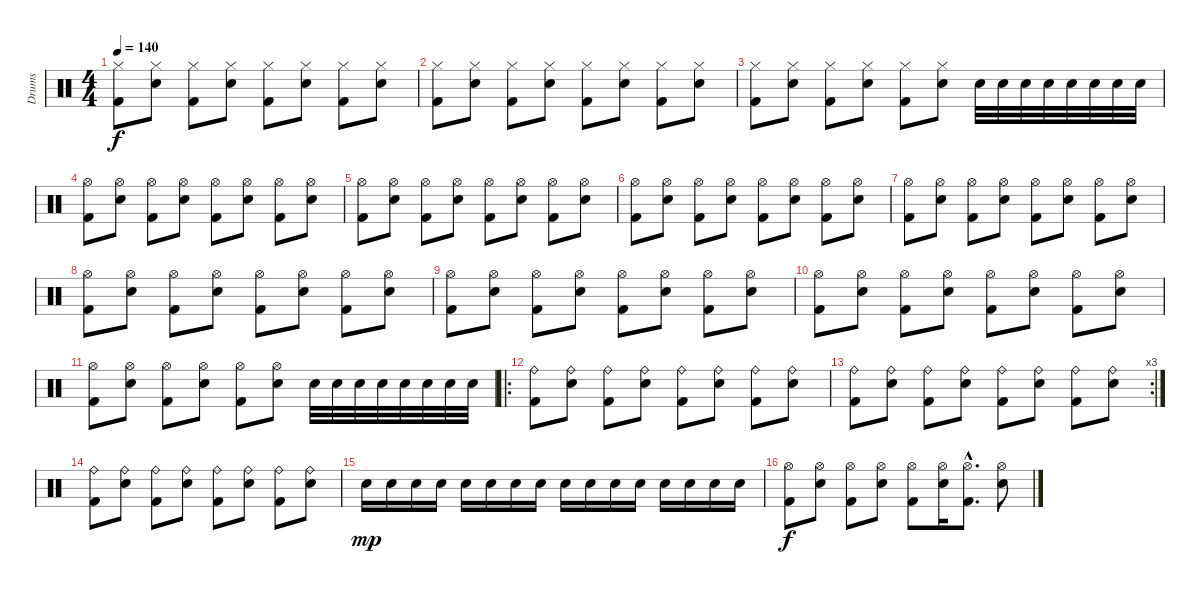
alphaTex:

\track ("Drums" "Drums") {instrument percussion}
\staff {score}
\articulation defaults
\ts (4 4)
\tempo 140
\clef neutral
\ks c
("Hi-Hat (closed)" "Kick (hit) 2").8{dy f} ("Hi-Hat (closed)" "Electric Snare (hit)").8 ("Hi-Hat (closed)" "Kick (hit) 2").8 ("Hi-Hat (closed)" "Electric Snare (hit)").8 ("Hi-Hat (closed)" "Kick (hit) 2").8 ("Hi-Hat (closed)" "Electric Snare (hit)").8 ("Hi-Hat (closed)" "Kick (hit) 2").8 ("Hi-Hat (closed)" "Electric Snare (hit)").8 |
("Hi-Hat (closed)" "Kick (hit) 2").8 ("Hi-Hat (closed)" "Electric Snare (hit)").8 ("Hi-Hat (closed)" "Kick (hit) 2").8 ("Hi-Hat (closed)" "Electric Snare (hit)").8 ("Hi-Hat (closed)" "Kick (hit) 2").8 ("Hi-Hat (closed)" "Electric Snare (hit)").8 ("Hi-Hat (closed)" "Kick (hit) 2").8 ("Hi-Hat (closed)" "Electric Snare (hit)").8 |
("Hi-Hat (closed)" "Kick (hit) 2").8 ("Hi-Hat (closed)" "Electric Snare (hit)").8 ("Hi-Hat (closed)" "Kick (hit) 2").8 ("Hi-Hat (closed)" "Electric Snare (hit)").8 ("Hi-Hat (closed)" "Kick (hit) 2").8 ("Hi-Hat (closed)" "Electric Snare (hit)").8 "Electric Snare (hit)".32 "Electric Snare (hit)".32 "Electric Snare (hit)".32 "Electric Snare (hit)".32 "Electric Snare (hit)".32 "Electric Snare (hit)".32 "Electric Snare (hit)".32 "Electric Snare (hit)".32 |
("Hi-Hat (open)" "Kick (hit) 2").8 ("Hi-Hat (open)" "Electric Snare (hit)").8 ("Hi-Hat (open)" "Kick (hit) 2").8 ("Hi-Hat (open)" "Electric Snare (hit)").8 ("Hi-Hat (open)" "Kick (hit) 2").8 ("Hi-Hat (open)" "Electric Snare (hit)").8 ("Hi-Hat (open)" "Kick (hit) 2").8 ("Hi-Hat (open)" "Electric Snare (hit)").8 |
("Hi-Hat (open)" "Kick (hit) 2").8 ("Hi-Hat (open)" "Electric Snare (hit)").8 ("Hi-Hat (open)" "Kick (hit) 2").8 ("Hi-Hat (open)" "Electric Snare (hit)").8 ("Hi-Hat (open)" "Kick (hit) 2").8 ("Hi-Hat (open)" "Electric Snare (hit)").8 ("Hi-Hat (open)" "Kick (hit) 2").8 ("Hi-Hat (open)" "Electric Snare (hit)").8 |
("Hi-Hat (open)" "Kick (hit) 2").8 ("Hi-Hat (open)" "Electric Snare (hit)").8 ("Hi-Hat (open)" "Kick (hit) 2").8 ("Hi-Hat (open)" "Electric Snare (hit)").8 ("Hi-Hat (open)" "Kick (hit) 2").8 ("Hi-Hat (open)" "Electric Snare (hit)").8 ("Hi-Hat (open)" "Kick (hit) 2").8 ("Hi-Hat (open)" "Electric Snare (hit)").8 |
("Hi-Hat (open)" "Kick (hit) 2").8 ("Hi-Hat (open)" "Electric Snare (hit)").8 ("Hi-Hat (open)" "Kick (hit) 2").8 ("Hi-Hat (open)" "Electric Snare (hit)").8 ("Hi-Hat (open)" "Kick (hit) 2").8 ("Hi-Hat (open)" "Electric Snare (hit)").8 ("Hi-Hat (open)" "Kick (hit) 2").8 ("Hi-Hat (open)" "Electric Snare (hit)").8 |
("Hi-Hat (open)" "Kick (hit) 2").8 ("Hi-Hat (open)" "Electric Snare (hit)").8 ("Hi-Hat (open)" "Kick (hit) 2").8 ("Hi-Hat (open)" "Electric Snare (hit)").8 ("Hi-Hat (open)" "Kick (hit) 2").8 ("Hi-Hat (open)" "Electric Snare (hit)").8 ("Hi-Hat (open)" "Kick (hit) 2").8 ("Hi-Hat (open)" "Electric Snare (hit)").8 |
("Hi-Hat (open)" "Kick (hit) 2").8 ("Hi-Hat (open)" "Electric Snare (hit)").8 ("Hi-Hat (open)" "Kick (hit) 2").8 ("Hi-Hat (open)" "Electric Snare (hit)").8 ("Hi-Hat (open)" "Kick (hit) 2").8 ("Hi-Hat (open)" "Electric Snare (hit)").8 ("Hi-Hat (open)" "Kick (hit) 2").8 ("Hi-Hat (open)" "Electric Snare (hit)").8 |
("Hi-Hat (open)" "Kick (hit) 2").8 ("Hi-Hat (open)" "Electric Snare (hit)").8 ("Hi-Hat (open)" "Kick (hit) 2").8 ("Hi-Hat (open)" "Electric Snare (hit)").8 ("Hi-Hat (open)" "Kick (hit) 2").8 ("Hi-Hat (open)" "Electric Snare (hit)").8 ("Hi-Hat (open)" "Kick (hit) 2").8 ("Hi-Hat (open)" "Electric Snare (hit)").8 |
("Hi-Hat (open)" "Kick (hit) 2").8 ("Hi-Hat (open)" "Electric Snare (hit)").8 ("Hi-Hat (open)" "Kick (hit) 2").8 ("Hi-Hat (open)" "Electric Snare (hit)").8 ("Hi-Hat (open)" "Kick (hit) 2").8 ("Hi-Hat (open)" "Electric Snare (hit)").8 "Electric Snare (hit)".32 "Electric Snare (hit)".32 "Electric Snare (hit)".32 "Electric Snare (hit)".32 "Electric Snare (hit)".32 "Electric Snare (hit)".32 "Electric Snare (hit)".32 "Electric Snare (hit)".32 |
\ro
("Ride (bell)" "Kick (hit) 2").8 ("Ride (bell)" "Electric Snare (hit)").8 ("Ride (bell)" "Kick (hit) 2").8 ("Ride (bell)" "Electric Snare (hit)").8 ("Ride (bell)" "Kick (hit) 2").8 ("Ride (bell)" "Electric Snare (hit)").8 ("Ride (bell)" "Kick (hit) 2").8 ("Ride (bell)" "Electric Snare (hit)").8 |
\rc 3
("Ride (bell)" "Kick (hit) 2").8 ("Ride (bell)" "Electric Snare (hit)").8 ("Ride (bell)" "Kick (hit) 2").8 ("Ride (bell)" "Electric Snare (hit)").8 ("Ride (bell)" "Kick (hit) 2").8 ("Ride (bell)" "Electric Snare (hit)").8 ("Ride (bell)" "Kick (hit) 2").8 ("Ride (bell)" "Electric Snare (hit)").8 |
("Ride (bell)" "Kick (hit) 2").8 ("Ride (bell)" "Electric Snare (hit)").8 ("Ride (bell)" "Kick (hit) 2").8 ("Ride (bell)" "Electric Snare (hit)").8 ("Ride (bell)" "Kick (hit) 2").8 ("Ride (bell)" "Electric Snare (hit)").8 ("Ride (bell)" "Kick (hit) 2").8 ("Ride (bell)" "Electric Snare (hit)").8 |
"Electric Snare (hit)".16{dy mp} "Electric Snare (hit)".16 "Electric Snare (hit)".16 "Electric Snare (hit)".16 "Electric Snare (hit)".16 "Electric Snare (hit)".16 "Electric Snare (hit)".16 "Electric Snare (hit)".16 "Electric Snare (hit)".16 "Electric Snare (hit)".16 "Electric Snare (hit)".16 "Electric Snare (hit)".16 "Electric Snare (hit)".16 "Electric Snare (hit)".16 "Electric Snare (hit)".16 "Electric Snare (hit)".16 |
("Hi-Hat (open)" "Kick (hit) 2").8{dy f} ("Hi-Hat (open)" "Electric Snare (hit)").8 ("Hi-Hat (open)" "Kick (hit) 2").8 ("Hi-Hat (open)" "Electric Snare (hit)").8 ("Hi-Hat (open)" "Kick (hit) 2").8 ("Hi-Hat (open)" "Electric Snare (hit)").16 ("Hi-Hat (open)"{hac} "Kick (hit) 2"{hac}).8{d} ("Hi-Hat (open)" "Electric Snare (hit)").8
